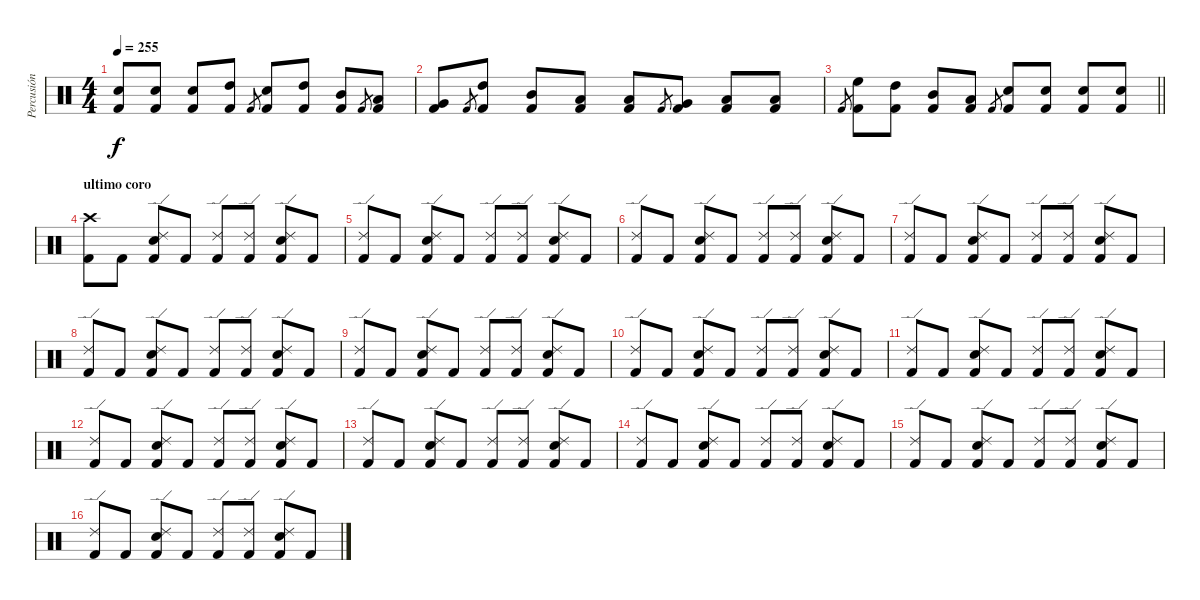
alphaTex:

\track ("Percusión" "Percusión") {instrument percussion}
\staff {score}
\articulation defaults
\ts (4 4)
\tempo 255
\clef neutral
\ks c
("Kick (hit) 2" "Electric Snare (hit)").8{dy f} ("Kick (hit) 2" "Electric Snare (hit)").8 ("Kick (hit) 2" "Electric Snare (hit)").8 ("Kick (hit) 2" "High Tom (hit)").8 "Kick (hit) 2".8{gr} ("Kick (hit) 2" "Electric Snare (hit)").8 ("Kick (hit) 2" "High Tom (hit)").8 ("Kick (hit) 2" "Mid Tom (hit)").8 "Kick (hit) 2".8{gr} ("Kick (hit) 2" "Low Tom (hit)").8 |
("Kick (hit) 2" "Very Low Tom (hit)").8 "Kick (hit) 2".8{gr} ("Kick (hit) 2" "High Tom (hit)").8 ("Kick (hit) 2" "Mid Tom (hit)").8 ("Kick (hit) 2" "Low Tom (hit)").8 ("Kick (hit) 2" "Low Tom (hit)").8 "Kick (hit) 2".8{gr} ("Kick (hit) 2" "Very Low Tom (hit)").8 ("Kick (hit) 2" "Low Floor Tom (hit)").8 ("Kick (hit) 2" "Low Floor Tom (hit)").8 |
\barLineRight lightlight "Kick (hit) 2".8{gr}
("Kick (hit) 2" "High Floor Tom (hit)").8 ("Kick (hit) 2" "High Tom (hit)").8 ("Kick (hit) 2" "Mid Tom (hit)").8 ("Kick (hit) 2" "Low Tom (hit)").8 "Kick (hit) 2".8{gr} ("Kick (hit) 2" "Electric Snare (hit)").8 ("Kick (hit) 2" "Electric Snare (hit)").8 ("Kick (hit) 2" "Electric Snare (hit)").8 ("Kick (hit) 2" "Electric Snare (hit)").8 |
\section ("" "ultimo coro ")
("Kick (hit) 2" "Crash high (hit)").8 "Kick (hit) 2".8 ("Kick (hit) 2" "Electric Snare (hit)" "Ride (edge) 2").8 "Kick (hit) 2".8 ("Kick (hit) 2" "Ride (edge) 2").8 ("Kick (hit) 2" "Ride (edge) 2").8 ("Kick (hit) 2" "Electric Snare (hit)" "Ride (edge) 2").8 "Kick (hit) 2".8 |
("Kick (hit) 2" "Ride (edge) 2").8 "Kick (hit) 2".8 ("Kick (hit) 2" "Electric Snare (hit)" "Ride (edge) 2").8 "Kick (hit) 2".8 ("Kick (hit) 2" "Ride (edge) 2").8 ("Kick (hit) 2" "Ride (edge) 2").8 ("Kick (hit) 2" "Electric Snare (hit)" "Ride (edge) 2").8 "Kick (hit) 2".8 |
("Kick (hit) 2" "Ride (edge) 2").8 "Kick (hit) 2".8 ("Kick (hit) 2" "Electric Snare (hit)" "Ride (edge) 2").8 "Kick (hit) 2".8 ("Kick (hit) 2" "Ride (edge) 2").8 ("Kick (hit) 2" "Ride (edge) 2").8 ("Kick (hit) 2" "Electric Snare (hit)" "Ride (edge) 2").8 "Kick (hit) 2".8 |
("Kick (hit) 2" "Ride (edge) 2").8 "Kick (hit) 2".8 ("Kick (hit) 2" "Electric Snare (hit)" "Ride (edge) 2").8 "Kick (hit) 2".8 ("Kick (hit) 2" "Ride (edge) 2").8 ("Kick (hit) 2" "Ride (edge) 2").8 ("Kick (hit) 2" "Electric Snare (hit)" "Ride (edge) 2").8 "Kick (hit) 2".8 |
("Kick (hit) 2" "Ride (edge) 2").8 "Kick (hit) 2".8 ("Kick (hit) 2" "Electric Snare (hit)" "Ride (edge) 2").8 "Kick (hit) 2".8 ("Kick (hit) 2" "Ride (edge) 2").8 ("Kick (hit) 2" "Ride (edge) 2").8 ("Kick (hit) 2" "Electric Snare (hit)" "Ride (edge) 2").8 "Kick (hit) 2".8 |
("Kick (hit) 2" "Ride (edge) 2").8 "Kick (hit) 2".8 ("Kick (hit) 2" "Electric Snare (hit)" "Ride (edge) 2").8 "Kick (hit) 2".8 ("Kick (hit) 2" "Ride (edge) 2").8 ("Kick (hit) 2" "Ride (edge) 2").8 ("Kick (hit) 2" "Electric Snare (hit)" "Ride (edge) 2").8 "Kick (hit) 2".8 |
("Kick (hit) 2" "Ride (edge) 2").8 "Kick (hit) 2".8 ("Kick (hit) 2" "Electric Snare (hit)" "Ride (edge) 2").8 "Kick (hit) 2".8 ("Kick (hit) 2" "Ride (edge) 2").8 ("Kick (hit) 2" "Ride (edge) 2").8 ("Kick (hit) 2" "Electric Snare (hit)" "Ride (edge) 2").8 "Kick (hit) 2".8 |
("Kick (hit) 2" "Ride (edge) 2").8 "Kick (hit) 2".8 ("Kick (hit) 2" "Electric Snare (hit)" "Ride (edge) 2").8 "Kick (hit) 2".8 ("Kick (hit) 2" "Ride (edge) 2").8 ("Kick (hit) 2" "Ride (edge) 2").8 ("Kick (hit) 2" "Electric Snare (hit)" "Ride (edge) 2").8 "Kick (hit) 2".8 |
("Kick (hit) 2" "Ride (edge) 2").8 "Kick (hit) 2".8 ("Kick (hit) 2" "Electric Snare (hit)" "Ride (edge) 2").8 "Kick (hit) 2".8 ("Kick (hit) 2" "Ride (edge) 2").8 ("Kick (hit) 2" "Ride (edge) 2").8 ("Kick (hit) 2" "Electric Snare (hit)" "Ride (edge) 2").8 "Kick (hit) 2".8 |
("Kick (hit) 2" "Ride (edge) 2").8 "Kick (hit) 2".8 ("Kick (hit) 2" "Electric Snare (hit)" "Ride (edge) 2").8 "Kick (hit) 2".8 ("Kick (hit) 2" "Ride (edge) 2").8 ("Kick (hit) 2" "Ride (edge) 2").8 ("Kick (hit) 2" "Electric Snare (hit)" "Ride (edge) 2").8 "Kick (hit) 2".8 |
("Kick (hit) 2" "Ride (edge) 2").8 "Kick (hit) 2".8 ("Kick (hit) 2" "Electric Snare (hit)" "Ride (edge) 2").8 "Kick (hit) 2".8 ("Kick (hit) 2" "Ride (edge) 2").8 ("Kick (hit) 2" "Ride (edge) 2").8 ("Kick (hit) 2" "Electric Snare (hit)" "Ride (edge) 2").8 "Kick (hit) 2".8 |
("Kick (hit) 2" "Ride (edge) 2").8 "Kick (hit) 2".8 ("Kick (hit) 2" "Electric Snare (hit)" "Ride (edge) 2").8 "Kick (hit) 2".8 ("Kick (hit) 2" "Ride (edge) 2").8 ("Kick (hit) 2" "Ride (edge) 2").8 ("Kick (hit) 2" "Electric Snare (hit)" "Ride (edge) 2").8 "Kick (hit) 2".8 |
("Kick (hit) 2" "Ride (edge) 2").8 "Kick (hit) 2".8 ("Kick (hit) 2" "Electric Snare (hit)" "Ride (edge) 2").8 "Kick (hit) 2".8 ("Kick (hit) 2" "Ride (edge) 2").8 ("Kick (hit) 2" "Ride (edge) 2").8 ("Kick (hit) 2" "Electric Snare (hit)" "Ride (edge) 2").8 "Kick (hit) 2".8
